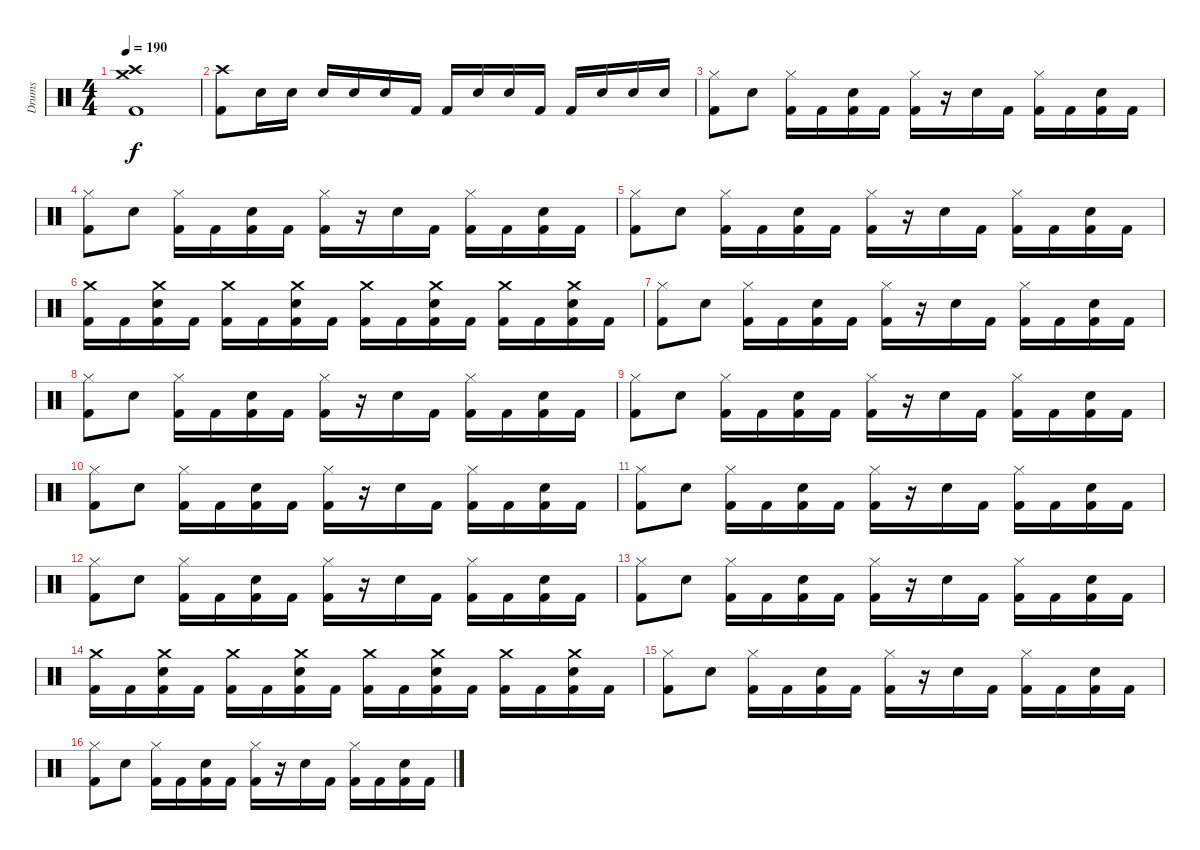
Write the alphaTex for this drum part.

\track ("Drums" "Drums") {instrument percussion}
\staff {score}
\articulation defaults
\ts (4 4)
\tempo 190
\clef neutral
\ks c
("Crash medium (hit)" "Crash high (hit)" "Kick (hit) 2").1{dy f} |
("Crash high (hit)" "Kick (hit) 2").8 "Snare (hit) 2".16 "Snare (hit) 2".16 "Snare (hit) 2".16 "Snare (hit) 2".16 "Snare (hit) 2".16 "Kick (hit) 2".16 "Kick (hit) 2".16 "Snare (hit) 2".16 "Snare (hit) 2".16 "Kick (hit) 2".16 "Kick (hit) 2".16 "Snare (hit) 2".16 "Snare (hit) 2".16 "Snare (hit) 2".16 |
("Hi-Hat (closed)" "Kick (hit) 2").8 "Snare (hit) 2".8 ("Hi-Hat (closed)" "Kick (hit) 2").16 "Kick (hit) 2".16 ("Snare (hit) 2" "Kick (hit) 2").16 "Kick (hit) 2".16 ("Hi-Hat (closed)" "Kick (hit) 2").16 r.16 "Snare (hit) 2".16 "Kick (hit) 2".16 ("Hi-Hat (closed)" "Kick (hit) 2").16 "Kick (hit) 2".16 ("Snare (hit) 2" "Kick (hit) 2").16 "Kick (hit) 2".16 |
("Hi-Hat (closed)" "Kick (hit) 2").8 "Snare (hit) 2".8 ("Hi-Hat (closed)" "Kick (hit) 2").16 "Kick (hit) 2".16 ("Snare (hit) 2" "Kick (hit) 2").16 "Kick (hit) 2".16 ("Hi-Hat (closed)" "Kick (hit) 2").16 r.16 "Snare (hit) 2".16 "Kick (hit) 2".16 ("Hi-Hat (closed)" "Kick (hit) 2").16 "Kick (hit) 2".16 ("Snare (hit) 2" "Kick (hit) 2").16 "Kick (hit) 2".16 |
("Hi-Hat (closed)" "Kick (hit) 2").8 "Snare (hit) 2".8 ("Hi-Hat (closed)" "Kick (hit) 2").16 "Kick (hit) 2".16 ("Snare (hit) 2" "Kick (hit) 2").16 "Kick (hit) 2".16 ("Hi-Hat (closed)" "Kick (hit) 2").16 r.16 "Snare (hit) 2".16 "Kick (hit) 2".16 ("Hi-Hat (closed)" "Kick (hit) 2").16 "Kick (hit) 2".16 ("Snare (hit) 2" "Kick (hit) 2").16 "Kick (hit) 2".16 |
("Crash medium (hit)" "Kick (hit) 2").16 "Kick (hit) 2".16 ("Crash medium (hit)" "Snare (hit) 2" "Kick (hit) 2").16 "Kick (hit) 2".16 ("Crash medium (hit)" "Kick (hit) 2").16 "Kick (hit) 2".16 ("Crash medium (hit)" "Snare (hit) 2" "Kick (hit) 2").16 "Kick (hit) 2".16 ("Crash medium (hit)" "Kick (hit) 2").16 "Kick (hit) 2".16 ("Crash medium (hit)" "Snare (hit) 2" "Kick (hit) 2").16 "Kick (hit) 2".16 ("Crash medium (hit)" "Kick (hit) 2").16 "Kick (hit) 2".16 ("Crash medium (hit)" "Snare (hit) 2" "Kick (hit) 2").16 "Kick (hit) 2".16 |
("Hi-Hat (closed)" "Kick (hit) 2").8 "Snare (hit) 2".8 ("Hi-Hat (closed)" "Kick (hit) 2").16 "Kick (hit) 2".16 ("Snare (hit) 2" "Kick (hit) 2").16 "Kick (hit) 2".16 ("Hi-Hat (closed)" "Kick (hit) 2").16 r.16 "Snare (hit) 2".16 "Kick (hit) 2".16 ("Hi-Hat (closed)" "Kick (hit) 2").16 "Kick (hit) 2".16 ("Snare (hit) 2" "Kick (hit) 2").16 "Kick (hit) 2".16 |
("Hi-Hat (closed)" "Kick (hit) 2").8 "Snare (hit) 2".8 ("Hi-Hat (closed)" "Kick (hit) 2").16 "Kick (hit) 2".16 ("Snare (hit) 2" "Kick (hit) 2").16 "Kick (hit) 2".16 ("Hi-Hat (closed)" "Kick (hit) 2").16 r.16 "Snare (hit) 2".16 "Kick (hit) 2".16 ("Hi-Hat (closed)" "Kick (hit) 2").16 "Kick (hit) 2".16 ("Snare (hit) 2" "Kick (hit) 2").16 "Kick (hit) 2".16 |
("Hi-Hat (closed)" "Kick (hit) 2").8 "Snare (hit) 2".8 ("Hi-Hat (closed)" "Kick (hit) 2").16 "Kick (hit) 2".16 ("Snare (hit) 2" "Kick (hit) 2").16 "Kick (hit) 2".16 ("Hi-Hat (closed)" "Kick (hit) 2").16 r.16 "Snare (hit) 2".16 "Kick (hit) 2".16 ("Hi-Hat (closed)" "Kick (hit) 2").16 "Kick (hit) 2".16 ("Snare (hit) 2" "Kick (hit) 2").16 "Kick (hit) 2".16 |
("Hi-Hat (closed)" "Kick (hit) 2").8 "Snare (hit) 2".8 ("Hi-Hat (closed)" "Kick (hit) 2").16 "Kick (hit) 2".16 ("Snare (hit) 2" "Kick (hit) 2").16 "Kick (hit) 2".16 ("Hi-Hat (closed)" "Kick (hit) 2").16 r.16 "Snare (hit) 2".16 "Kick (hit) 2".16 ("Hi-Hat (closed)" "Kick (hit) 2").16 "Kick (hit) 2".16 ("Snare (hit) 2" "Kick (hit) 2").16 "Kick (hit) 2".16 |
("Hi-Hat (closed)" "Kick (hit) 2").8 "Snare (hit) 2".8 ("Hi-Hat (closed)" "Kick (hit) 2").16 "Kick (hit) 2".16 ("Snare (hit) 2" "Kick (hit) 2").16 "Kick (hit) 2".16 ("Hi-Hat (closed)" "Kick (hit) 2").16 r.16 "Snare (hit) 2".16 "Kick (hit) 2".16 ("Hi-Hat (closed)" "Kick (hit) 2").16 "Kick (hit) 2".16 ("Snare (hit) 2" "Kick (hit) 2").16 "Kick (hit) 2".16 |
("Hi-Hat (closed)" "Kick (hit) 2").8 "Snare (hit) 2".8 ("Hi-Hat (closed)" "Kick (hit) 2").16 "Kick (hit) 2".16 ("Snare (hit) 2" "Kick (hit) 2").16 "Kick (hit) 2".16 ("Hi-Hat (closed)" "Kick (hit) 2").16 r.16 "Snare (hit) 2".16 "Kick (hit) 2".16 ("Hi-Hat (closed)" "Kick (hit) 2").16 "Kick (hit) 2".16 ("Snare (hit) 2" "Kick (hit) 2").16 "Kick (hit) 2".16 |
("Hi-Hat (closed)" "Kick (hit) 2").8 "Snare (hit) 2".8 ("Hi-Hat (closed)" "Kick (hit) 2").16 "Kick (hit) 2".16 ("Snare (hit) 2" "Kick (hit) 2").16 "Kick (hit) 2".16 ("Hi-Hat (closed)" "Kick (hit) 2").16 r.16 "Snare (hit) 2".16 "Kick (hit) 2".16 ("Hi-Hat (closed)" "Kick (hit) 2").16 "Kick (hit) 2".16 ("Snare (hit) 2" "Kick (hit) 2").16 "Kick (hit) 2".16 |
("Crash medium (hit)" "Kick (hit) 2").16 "Kick (hit) 2".16 ("Crash medium (hit)" "Snare (hit) 2" "Kick (hit) 2").16 "Kick (hit) 2".16 ("Crash medium (hit)" "Kick (hit) 2").16 "Kick (hit) 2".16 ("Crash medium (hit)" "Snare (hit) 2" "Kick (hit) 2").16 "Kick (hit) 2".16 ("Crash medium (hit)" "Kick (hit) 2").16 "Kick (hit) 2".16 ("Crash medium (hit)" "Snare (hit) 2" "Kick (hit) 2").16 "Kick (hit) 2".16 ("Crash medium (hit)" "Kick (hit) 2").16 "Kick (hit) 2".16 ("Crash medium (hit)" "Snare (hit) 2" "Kick (hit) 2").16 "Kick (hit) 2".16 |
("Hi-Hat (closed)" "Kick (hit) 2").8 "Snare (hit) 2".8 ("Hi-Hat (closed)" "Kick (hit) 2").16 "Kick (hit) 2".16 ("Snare (hit) 2" "Kick (hit) 2").16 "Kick (hit) 2".16 ("Hi-Hat (closed)" "Kick (hit) 2").16 r.16 "Snare (hit) 2".16 "Kick (hit) 2".16 ("Hi-Hat (closed)" "Kick (hit) 2").16 "Kick (hit) 2".16 ("Snare (hit) 2" "Kick (hit) 2").16 "Kick (hit) 2".16 |
("Hi-Hat (closed)" "Kick (hit) 2").8 "Snare (hit) 2".8 ("Hi-Hat (closed)" "Kick (hit) 2").16 "Kick (hit) 2".16 ("Snare (hit) 2" "Kick (hit) 2").16 "Kick (hit) 2".16 ("Hi-Hat (closed)" "Kick (hit) 2").16 r.16 "Snare (hit) 2".16 "Kick (hit) 2".16 ("Hi-Hat (closed)" "Kick (hit) 2").16 "Kick (hit) 2".16 ("Snare (hit) 2" "Kick (hit) 2").16 "Kick (hit) 2".16
